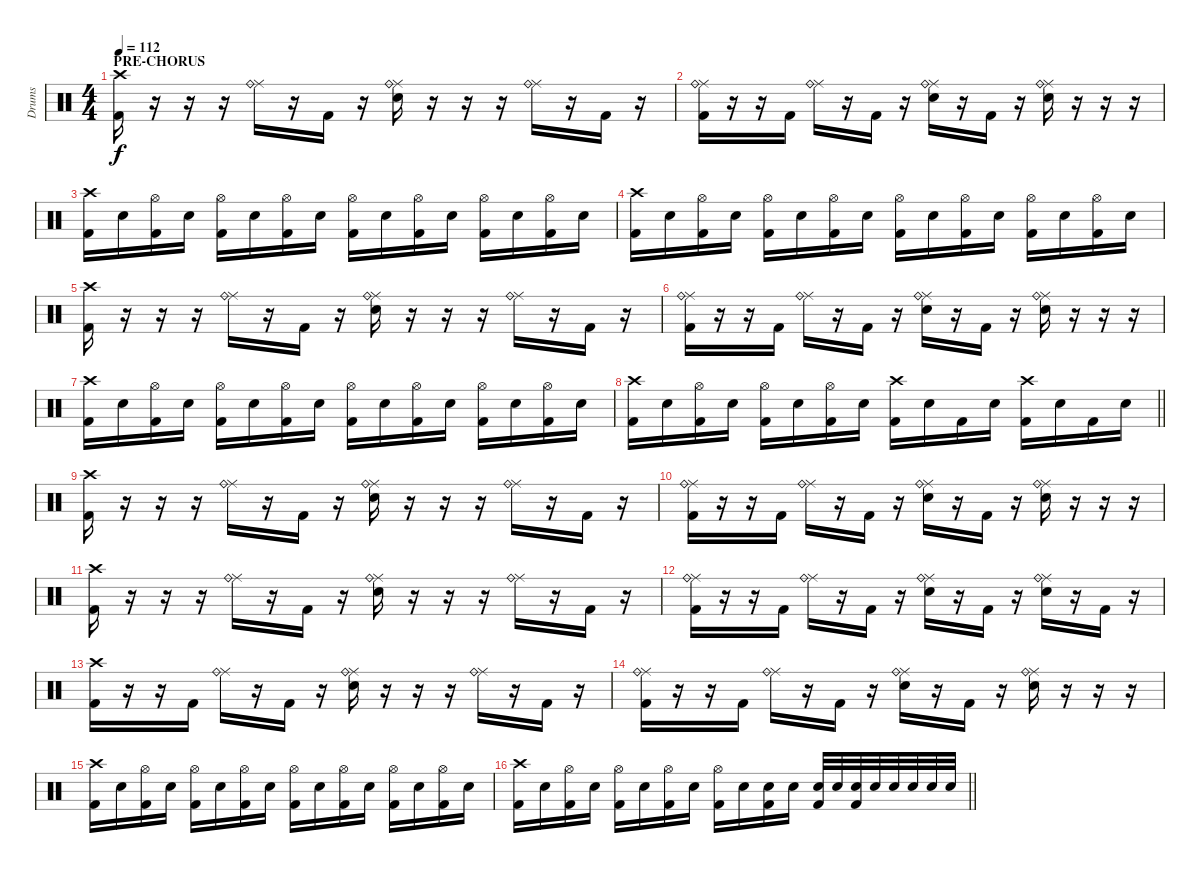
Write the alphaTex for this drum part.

\track ("Drums" "Drums") {instrument percussion}
\staff
\articulation defaults
\ts (4 4)
\section ("" "PRE-CHORUS")
\tempo 112
\clef neutral
\ks c
("Crash high (hit)" "Kick (hit) 2").16{dy f} r.16 r.16 r.16 ("Ride (middle)" "Ride (bell)").16 r.16 "Kick (hit) 2".16 r.16 ("Ride (middle)" "Ride (bell)" "Snare (hit) 2").16 r.16 r.16 r.16 ("Ride (middle)" "Ride (bell)").16 r.16 "Kick (hit) 2".16 r.16 |
("Ride (middle)" "Ride (bell)" "Kick (hit) 2").16 r.16 r.16 "Kick (hit) 2".16 ("Ride (middle)" "Ride (bell)").16 r.16 "Kick (hit) 2".16 r.16 ("Ride (middle)" "Ride (bell)" "Snare (hit) 2").16 r.16 "Kick (hit) 2".16 r.16 ("Ride (middle)" "Ride (bell)" "Snare (hit) 2").16 r.16 r.16 r.16 |
("Crash high (hit)" "Kick (hit) 2").16 "Snare (hit) 2".16 ("Hi-Hat (open)" "Kick (hit) 2").16 "Snare (hit) 2".16 ("Hi-Hat (open)" "Kick (hit) 2").16 "Snare (hit) 2".16 ("Hi-Hat (open)" "Kick (hit) 2").16 "Snare (hit) 2".16 ("Hi-Hat (open)" "Kick (hit) 2").16 "Snare (hit) 2".16 ("Hi-Hat (open)" "Kick (hit) 2").16 "Snare (hit) 2".16 ("Hi-Hat (open)" "Kick (hit) 2").16 "Snare (hit) 2".16 ("Hi-Hat (open)" "Kick (hit) 2").16 "Snare (hit) 2".16 |
("Crash high (hit)" "Kick (hit) 2").16 "Snare (hit) 2".16 ("Hi-Hat (open)" "Kick (hit) 2").16 "Snare (hit) 2".16 ("Hi-Hat (open)" "Kick (hit) 2").16 "Snare (hit) 2".16 ("Hi-Hat (open)" "Kick (hit) 2").16 "Snare (hit) 2".16 ("Hi-Hat (open)" "Kick (hit) 2").16 "Snare (hit) 2".16 ("Hi-Hat (open)" "Kick (hit) 2").16 "Snare (hit) 2".16 ("Hi-Hat (open)" "Kick (hit) 2").16 "Snare (hit) 2".16 ("Hi-Hat (open)" "Kick (hit) 2").16 "Snare (hit) 2".16 |
("Crash high (hit)" "Kick (hit) 2").16 r.16 r.16 r.16 ("Ride (middle)" "Ride (bell)").16 r.16 "Kick (hit) 2".16 r.16 ("Ride (middle)" "Ride (bell)" "Snare (hit) 2").16 r.16 r.16 r.16 ("Ride (middle)" "Ride (bell)").16 r.16 "Kick (hit) 2".16 r.16 |
("Ride (middle)" "Ride (bell)" "Kick (hit) 2").16 r.16 r.16 "Kick (hit) 2".16 ("Ride (middle)" "Ride (bell)").16 r.16 "Kick (hit) 2".16 r.16 ("Ride (middle)" "Ride (bell)" "Snare (hit) 2").16 r.16 "Kick (hit) 2".16 r.16 ("Ride (middle)" "Ride (bell)" "Snare (hit) 2").16 r.16 r.16 r.16 |
("Crash high (hit)" "Kick (hit) 2").16 "Snare (hit) 2".16 ("Hi-Hat (open)" "Kick (hit) 2").16 "Snare (hit) 2".16 ("Hi-Hat (open)" "Kick (hit) 2").16 "Snare (hit) 2".16 ("Hi-Hat (open)" "Kick (hit) 2").16 "Snare (hit) 2".16 ("Hi-Hat (open)" "Kick (hit) 2").16 "Snare (hit) 2".16 ("Hi-Hat (open)" "Kick (hit) 2").16 "Snare (hit) 2".16 ("Hi-Hat (open)" "Kick (hit) 2").16 "Snare (hit) 2".16 ("Hi-Hat (open)" "Kick (hit) 2").16 "Snare (hit) 2".16 |
\barLineRight lightlight
("Crash high (hit)" "Kick (hit) 2").16 "Snare (hit) 2".16 ("Hi-Hat (open)" "Kick (hit) 2").16 "Snare (hit) 2".16 ("Hi-Hat (open)" "Kick (hit) 2").16 "Snare (hit) 2".16 ("Hi-Hat (open)" "Kick (hit) 2").16 "Snare (hit) 2".16 ("Crash high (hit)" "Kick (hit) 2").16 "Snare (hit) 2".16 "Kick (hit) 2".16 "Snare (hit) 2".16 ("Crash high (hit)" "Kick (hit) 2").16 "Snare (hit) 2".16 "Kick (hit) 2".16 "Snare (hit) 2".16 |
("Crash high (hit)" "Kick (hit) 2").16 r.16 r.16 r.16 ("Ride (middle)" "Ride (bell)").16 r.16 "Kick (hit) 2".16 r.16 ("Ride (middle)" "Ride (bell)" "Snare (hit) 2").16 r.16 r.16 r.16 ("Ride (middle)" "Ride (bell)").16 r.16 "Kick (hit) 2".16 r.16 |
("Ride (middle)" "Ride (bell)" "Kick (hit) 2").16 r.16 r.16 "Kick (hit) 2".16 ("Ride (middle)" "Ride (bell)").16 r.16 "Kick (hit) 2".16 r.16 ("Ride (middle)" "Ride (bell)" "Snare (hit) 2").16 r.16 "Kick (hit) 2".16 r.16 ("Ride (middle)" "Ride (bell)" "Snare (hit) 2").16 r.16 r.16 r.16 |
("Crash high (hit)" "Kick (hit) 2").16 r.16 r.16 r.16 ("Ride (middle)" "Ride (bell)").16 r.16 "Kick (hit) 2".16 r.16 ("Ride (middle)" "Ride (bell)" "Snare (hit) 2").16 r.16 r.16 r.16 ("Ride (middle)" "Ride (bell)").16 r.16 "Kick (hit) 2".16 r.16 |
("Ride (middle)" "Ride (bell)" "Kick (hit) 2").16 r.16 r.16 "Kick (hit) 2".16 ("Ride (middle)" "Ride (bell)").16 r.16 "Kick (hit) 2".16 r.16 ("Ride (middle)" "Ride (bell)" "Snare (hit) 2").16 r.16 "Kick (hit) 2".16 r.16 ("Ride (middle)" "Ride (bell)" "Snare (hit) 2").16 r.16 "Kick (hit) 2".16 r.16 |
("Crash high (hit)" "Kick (hit) 2").16 r.16 r.16 "Kick (hit) 2".16 ("Ride (middle)" "Ride (bell)").16 r.16 "Kick (hit) 2".16 r.16 ("Ride (middle)" "Ride (bell)" "Snare (hit) 2").16 r.16 r.16 r.16 ("Ride (middle)" "Ride (bell)").16 r.16 "Kick (hit) 2".16 r.16 |
("Ride (middle)" "Ride (bell)" "Kick (hit) 2").16 r.16 r.16 "Kick (hit) 2".16 ("Ride (middle)" "Ride (bell)").16 r.16 "Kick (hit) 2".16 r.16 ("Ride (middle)" "Ride (bell)" "Snare (hit) 2").16 r.16 "Kick (hit) 2".16 r.16 ("Ride (middle)" "Ride (bell)" "Snare (hit) 2").16 r.16 r.16 r.16 |
("Crash high (hit)" "Kick (hit) 2").16 "Snare (hit) 2".16 ("Hi-Hat (open)" "Kick (hit) 2").16 "Snare (hit) 2".16 ("Hi-Hat (open)" "Kick (hit) 2").16 "Snare (hit) 2".16 ("Hi-Hat (open)" "Kick (hit) 2").16 "Snare (hit) 2".16 ("Hi-Hat (open)" "Kick (hit) 2").16 "Snare (hit) 2".16 ("Hi-Hat (open)" "Kick (hit) 2").16 "Snare (hit) 2".16 ("Hi-Hat (open)" "Kick (hit) 2").16 "Snare (hit) 2".16 ("Hi-Hat (open)" "Kick (hit) 2").16 "Snare (hit) 2".16 |
\barLineRight lightlight
("Crash high (hit)" "Kick (hit) 2").16 "Snare (hit) 2".16 ("Hi-Hat (open)" "Kick (hit) 2").16 "Snare (hit) 2".16 ("Hi-Hat (open)" "Kick (hit) 2").16 "Snare (hit) 2".16 ("Hi-Hat (open)" "Kick (hit) 2").16 "Snare (hit) 2".16 ("Hi-Hat (open)" "Kick (hit) 2").16 "Snare (hit) 2".16 ("Snare (hit) 2" "Kick (hit) 2").16 "Snare (hit) 2".16 ("Snare (hit) 2" "Kick (hit) 2").32 "Snare (hit) 2".32 ("Snare (hit) 2" "Kick (hit) 2").32 "Snare (hit) 2".32 "Snare (hit) 2".32 "Snare (hit) 2".32 "Snare (hit) 2".32 "Snare (hit) 2".32
